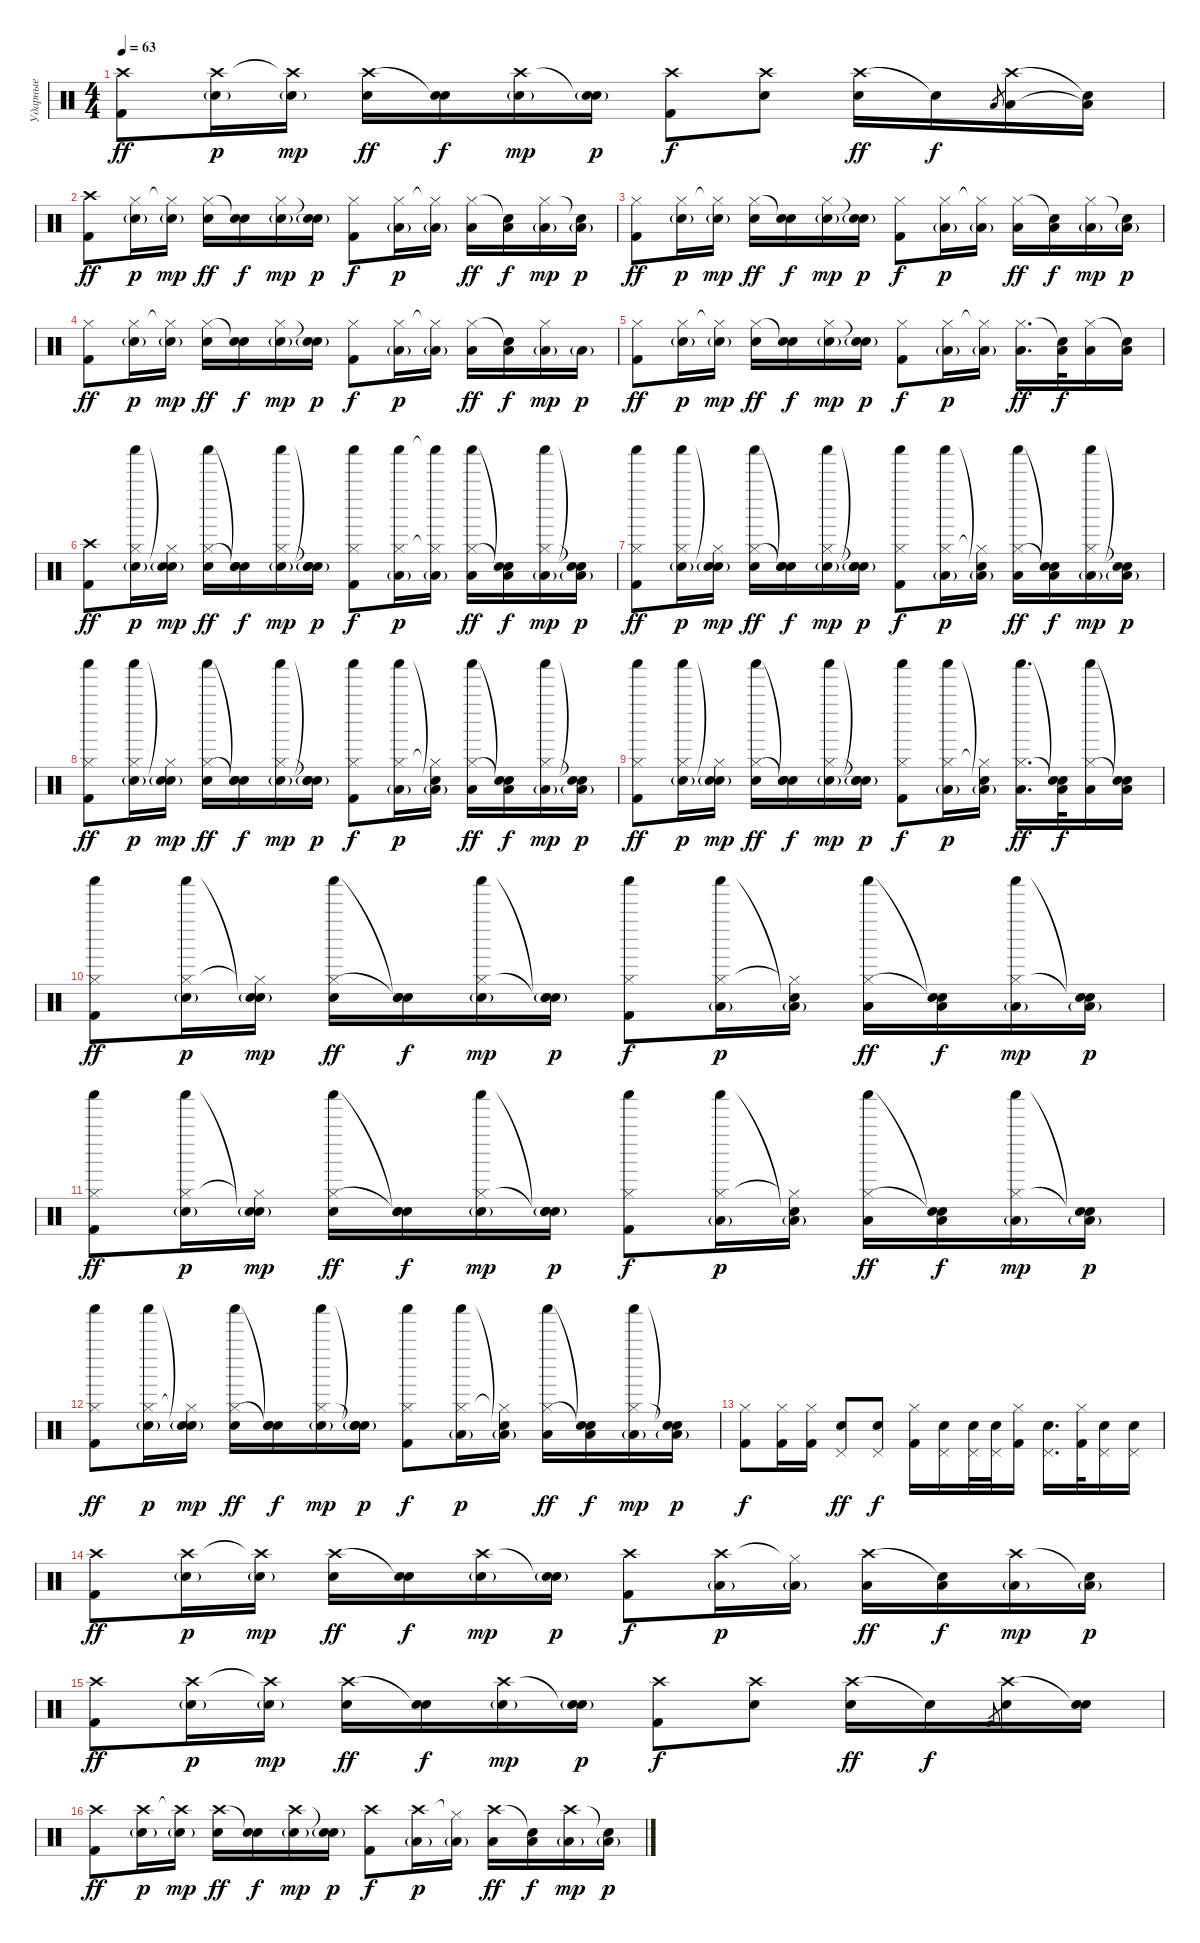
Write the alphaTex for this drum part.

\track ("Ударные" "Ударные") {instrument percussion}
\staff {score}
\articulation defaults
\ts (4 4)
\tempo 63
\clef neutral
\ks c
("Crash high (hit)" "Kick (hit) 2").8{dy ff} ("Crash high (hit)" "Snare (hit) 2"{g}).16{dy p} ("Crash high (hit)"{t} "Snare (hit) 2"{g}).16{dy mp} ("Crash high (hit)" "Snare (hit) 2").16{dy ff} ("Snare (hit)"{t} "Snare (hit) 2").16{dy f} ("Crash high (hit)" "Snare (hit) 2"{g}).16{dy mp} ("Snare (hit)"{t} "Snare (hit) 2"{g}).16{dy p} ("Crash high (hit)" "Kick (hit) 2").8{dy f} ("Crash high (hit)" "Snare (hit) 2").8 ("Crash high (hit)" "Snare (hit) 2").16{dy ff} "Snare (hit)"{t}.16{dy f} "Low Floor Tom (hit)".8{gr} ("Crash high (hit)" "Low Floor Tom (hit)").16 ("Snare (hit)"{t} "Low Floor Tom (hit)"{t}).16 |
("Crash high (hit)" "Kick (hit) 2").8{dy ff volume 12} ("Hi-Hat (closed)" "Snare (hit) 2"{g}).16{dy p} ("Hi-Hat (closed)"{t} "Snare (hit) 2"{g}).16{dy mp} ("Hi-Hat (closed)" "Snare (hit) 2").16{dy ff} ("Snare (hit)"{t} "Snare (hit) 2").16{dy f} ("Hi-Hat (closed)" "Snare (hit) 2"{g}).16{dy mp} ("Snare (hit)"{t} "Snare (hit) 2"{g}).16{dy p} ("Hi-Hat (closed)" "Kick (hit) 2").8{dy f} ("Hi-Hat (closed)" "Low Floor Tom (hit)"{g}).16{dy p} ("Hi-Hat (closed)"{t} "Low Floor Tom (hit)"{g}).16 ("Hi-Hat (closed)" "Low Floor Tom (hit)").16{dy ff} ("Snare (hit)"{t} "Low Floor Tom (hit)").16{dy f} ("Hi-Hat (closed)" "Low Floor Tom (hit)"{g}).16{dy mp} ("Snare (hit)"{t} "Low Floor Tom (hit)"{g}).16{dy p} |
("Hi-Hat (closed)" "Kick (hit) 2").8{dy ff} ("Hi-Hat (closed)" "Snare (hit) 2"{g}).16{dy p} ("Hi-Hat (closed)"{t} "Snare (hit) 2"{g}).16{dy mp} ("Hi-Hat (closed)" "Snare (hit) 2").16{dy ff} ("Snare (hit)"{t} "Snare (hit) 2").16{dy f} ("Hi-Hat (closed)" "Snare (hit) 2"{g}).16{dy mp} ("Snare (hit)"{t} "Snare (hit) 2"{g}).16{dy p} ("Hi-Hat (closed)" "Kick (hit) 2").8{dy f} ("Hi-Hat (closed)" "Low Floor Tom (hit)"{g}).16{dy p} ("Hi-Hat (closed)"{t} "Low Floor Tom (hit)"{g}).16 ("Hi-Hat (closed)" "Low Floor Tom (hit)").16{dy ff} ("Snare (hit)"{t} "Low Floor Tom (hit)").16{dy f} ("Hi-Hat (closed)" "Low Floor Tom (hit)"{g}).16{dy mp} ("Snare (hit)"{t} "Low Floor Tom (hit)"{g}).16{dy p} |
("Hi-Hat (closed)" "Kick (hit) 2").8{dy ff} ("Hi-Hat (closed)" "Snare (hit) 2"{g}).16{dy p} ("Hi-Hat (closed)"{t} "Snare (hit) 2"{g}).16{dy mp} ("Hi-Hat (closed)" "Snare (hit) 2").16{dy ff} ("Snare (hit)"{t} "Snare (hit) 2").16{dy f} ("Hi-Hat (closed)" "Snare (hit) 2"{g}).16{dy mp} ("Snare (hit)"{t} "Snare (hit) 2"{g}).16{dy p} ("Hi-Hat (closed)" "Kick (hit) 2").8{dy f} ("Hi-Hat (closed)" "Low Floor Tom (hit)"{g}).16{dy p} ("Hi-Hat (closed)"{t} "Low Floor Tom (hit)"{g}).16 ("Hi-Hat (closed)" "Low Floor Tom (hit)").16{dy ff} ("Snare (hit)"{t} "Low Floor Tom (hit)").16{dy f} ("Hi-Hat (closed)" "Low Floor Tom (hit)"{g}).16{dy mp} "Low Floor Tom (hit)"{g}.16{dy p} |
("Hi-Hat (closed)" "Kick (hit) 2").8{dy ff} ("Hi-Hat (closed)" "Snare (hit) 2"{g}).16{dy p} ("Hi-Hat (closed)"{t} "Snare (hit) 2"{g}).16{dy mp} ("Hi-Hat (closed)" "Snare (hit) 2").16{dy ff} ("Snare (hit)"{t} "Snare (hit) 2").16{dy f} ("Hi-Hat (closed)" "Snare (hit) 2"{g}).16{dy mp} ("Snare (hit)"{t} "Snare (hit) 2"{g}).16{dy p} ("Hi-Hat (closed)" "Kick (hit) 2").8{dy f} ("Hi-Hat (closed)" "Low Floor Tom (hit)"{g}).16{dy p} ("Hi-Hat (closed)"{t} "Low Floor Tom (hit)"{g}).16 ("Hi-Hat (closed)" "Low Floor Tom (hit)").16{d dy ff} ("Snare (hit)"{t} "Low Floor Tom (hit)").32{dy f} ("Hi-Hat (closed)" "Low Floor Tom (hit)").16 ("Snare (hit)"{t} "Low Floor Tom (hit)").16 |
("Crash high (hit)" "Kick (hit) 2").8{dy ff} ("Hi-Hat (closed)" "Shaker (hit)" "Snare (hit) 2"{g}).16{dy p} ("Hi-Hat (closed)"{t} "Snare (hit)"{t} "Snare (hit) 2"{g}).16{dy mp} ("Hi-Hat (closed)" "Shaker (hit)" "Snare (hit) 2").16{dy ff} ("Snare (hit)"{t} "Snare (hit)"{t} "Snare (hit) 2").16{dy f} ("Hi-Hat (closed)" "Shaker (hit)" "Snare (hit) 2"{g}).16{dy mp} ("Snare (hit)"{t} "Snare (hit)"{t} "Snare (hit) 2"{g}).16{dy p} ("Hi-Hat (closed)" "Shaker (hit)" "Kick (hit) 2").8{dy f} ("Hi-Hat (closed)" "Shaker (hit)" "Low Floor Tom (hit)"{g}).16{dy p} ("Hi-Hat (closed)"{t} "Shaker (hit)"{t} "Low Floor Tom (hit)"{g}).16 ("Hi-Hat (closed)" "Shaker (hit)" "Low Floor Tom (hit)").16{dy ff} ("Snare (hit)"{t} "Snare (hit)"{t} "Low Floor Tom (hit)").16{dy f} ("Hi-Hat (closed)" "Shaker (hit)" "Low Floor Tom (hit)"{g}).16{dy mp} ("Snare (hit)"{t} "Snare (hit)"{t} "Low Floor Tom (hit)"{g}).16{dy p} |
("Hi-Hat (closed)" "Shaker (hit)" "Kick (hit) 2").8{dy ff} ("Hi-Hat (closed)" "Shaker (hit)" "Snare (hit) 2"{g}).16{dy p} ("Hi-Hat (closed)"{t} "Snare (hit)"{t} "Snare (hit) 2"{g}).16{dy mp} ("Hi-Hat (closed)" "Shaker (hit)" "Snare (hit) 2").16{dy ff} ("Snare (hit)"{t} "Snare (hit)"{t} "Snare (hit) 2").16{dy f} ("Hi-Hat (closed)" "Shaker (hit)" "Snare (hit) 2"{g}).16{dy mp} ("Snare (hit)"{t} "Snare (hit)"{t} "Snare (hit) 2"{g}).16{dy p} ("Hi-Hat (closed)" "Shaker (hit)" "Kick (hit) 2").8{dy f} ("Hi-Hat (closed)" "Shaker (hit)" "Low Floor Tom (hit)"{g}).16{dy p} ("Hi-Hat (closed)"{t} "Snare (hit)"{t} "Low Floor Tom (hit)"{g}).16 ("Hi-Hat (closed)" "Shaker (hit)" "Low Floor Tom (hit)").16{dy ff} ("Snare (hit)"{t} "Snare (hit)"{t} "Low Floor Tom (hit)").16{dy f} ("Hi-Hat (closed)" "Shaker (hit)" "Low Floor Tom (hit)"{g}).16{dy mp} ("Snare (hit)"{t} "Snare (hit)"{t} "Low Floor Tom (hit)"{g}).16{dy p} |
("Hi-Hat (closed)" "Shaker (hit)" "Kick (hit) 2").8{dy ff} ("Hi-Hat (closed)" "Shaker (hit)" "Snare (hit) 2"{g}).16{dy p} ("Hi-Hat (closed)"{t} "Snare (hit)"{t} "Snare (hit) 2"{g}).16{dy mp} ("Hi-Hat (closed)" "Shaker (hit)" "Snare (hit) 2").16{dy ff} ("Snare (hit)"{t} "Snare (hit)"{t} "Snare (hit) 2").16{dy f} ("Hi-Hat (closed)" "Shaker (hit)" "Snare (hit) 2"{g}).16{dy mp} ("Snare (hit)"{t} "Snare (hit)"{t} "Snare (hit) 2"{g}).16{dy p} ("Hi-Hat (closed)" "Shaker (hit)" "Kick (hit) 2").8{dy f} ("Hi-Hat (closed)" "Shaker (hit)" "Low Floor Tom (hit)"{g}).16{dy p} ("Hi-Hat (closed)"{t} "Snare (hit)"{t} "Low Floor Tom (hit)"{g}).16 ("Hi-Hat (closed)" "Shaker (hit)" "Low Floor Tom (hit)").16{dy ff} ("Snare (hit)"{t} "Snare (hit)"{t} "Low Floor Tom (hit)").16{dy f} ("Hi-Hat (closed)" "Shaker (hit)" "Low Floor Tom (hit)"{g}).16{dy mp} ("Snare (hit)"{t} "Snare (hit)"{t} "Low Floor Tom (hit)"{g}).16{dy p} |
("Hi-Hat (closed)" "Shaker (hit)" "Kick (hit) 2").8{dy ff} ("Hi-Hat (closed)" "Shaker (hit)" "Snare (hit) 2"{g}).16{dy p} ("Hi-Hat (closed)"{t} "Snare (hit)"{t} "Snare (hit) 2"{g}).16{dy mp} ("Hi-Hat (closed)" "Shaker (hit)" "Snare (hit) 2").16{dy ff} ("Snare (hit)"{t} "Snare (hit)"{t} "Snare (hit) 2").16{dy f} ("Hi-Hat (closed)" "Shaker (hit)" "Snare (hit) 2"{g}).16{dy mp} ("Snare (hit)"{t} "Snare (hit)"{t} "Snare (hit) 2"{g}).16{dy p} ("Hi-Hat (closed)" "Shaker (hit)" "Kick (hit) 2").8{dy f} ("Hi-Hat (closed)" "Shaker (hit)" "Low Floor Tom (hit)"{g}).16{dy p} ("Hi-Hat (closed)"{t} "Snare (hit)"{t} "Low Floor Tom (hit)"{g}).16 ("Hi-Hat (closed)" "Shaker (hit)" "Low Floor Tom (hit)").16{d dy ff} ("Snare (hit)"{t} "Snare (hit)"{t} "Low Floor Tom (hit)").32{dy f} ("Hi-Hat (closed)" "Shaker (hit)" "Low Floor Tom (hit)").16 ("Snare (hit)"{t} "Snare (hit)"{t} "Low Floor Tom (hit)").16 |
("Hi-Hat (closed)" "Shaker (hit)" "Kick (hit) 2").8{dy ff} ("Hi-Hat (closed)" "Shaker (hit)" "Snare (hit) 2"{g}).16{dy p} ("Hi-Hat (closed)"{t} "Snare (hit)"{t} "Snare (hit) 2"{g}).16{dy mp} ("Hi-Hat (closed)" "Shaker (hit)" "Snare (hit) 2").16{dy ff} ("Snare (hit)"{t} "Snare (hit)"{t} "Snare (hit) 2").16{dy f} ("Hi-Hat (closed)" "Shaker (hit)" "Snare (hit) 2"{g}).16{dy mp} ("Snare (hit)"{t} "Snare (hit)"{t} "Snare (hit) 2"{g}).16{dy p} ("Hi-Hat (closed)" "Shaker (hit)" "Kick (hit) 2").8{dy f} ("Hi-Hat (closed)" "Shaker (hit)" "Low Floor Tom (hit)"{g}).16{dy p} ("Hi-Hat (closed)"{t} "Snare (hit)"{t} "Low Floor Tom (hit)"{g}).16 ("Hi-Hat (closed)" "Shaker (hit)" "Low Floor Tom (hit)").16{dy ff} ("Snare (hit)"{t} "Snare (hit)"{t} "Low Floor Tom (hit)").16{dy f} ("Hi-Hat (closed)" "Shaker (hit)" "Low Floor Tom (hit)"{g}).16{dy mp} ("Snare (hit)"{t} "Snare (hit)"{t} "Low Floor Tom (hit)"{g}).16{dy p} |
("Hi-Hat (closed)" "Shaker (hit)" "Kick (hit) 2").8{dy ff} ("Hi-Hat (closed)" "Shaker (hit)" "Snare (hit) 2"{g}).16{dy p} ("Hi-Hat (closed)"{t} "Snare (hit)"{t} "Snare (hit) 2"{g}).16{dy mp} ("Hi-Hat (closed)" "Shaker (hit)" "Snare (hit) 2").16{dy ff} ("Snare (hit)"{t} "Snare (hit)"{t} "Snare (hit) 2").16{dy f} ("Hi-Hat (closed)" "Shaker (hit)" "Snare (hit) 2"{g}).16{dy mp} ("Snare (hit)"{t} "Snare (hit)"{t} "Snare (hit) 2"{g}).16{dy p} ("Hi-Hat (closed)" "Shaker (hit)" "Kick (hit) 2").8{dy f} ("Hi-Hat (closed)" "Shaker (hit)" "Low Floor Tom (hit)"{g}).16{dy p} ("Hi-Hat (closed)"{t} "Snare (hit)"{t} "Low Floor Tom (hit)"{g}).16 ("Hi-Hat (closed)" "Shaker (hit)" "Low Floor Tom (hit)").16{dy ff} ("Snare (hit)"{t} "Snare (hit)"{t} "Low Floor Tom (hit)").16{dy f} ("Hi-Hat (closed)" "Shaker (hit)" "Low Floor Tom (hit)"{g}).16{dy mp} ("Snare (hit)"{t} "Snare (hit)"{t} "Low Floor Tom (hit)"{g}).16{dy p} |
("Hi-Hat (closed)" "Shaker (hit)" "Kick (hit) 2").8{dy ff} ("Hi-Hat (closed)" "Shaker (hit)" "Snare (hit) 2"{g}).16{dy p} ("Hi-Hat (closed)"{t} "Snare (hit)"{t} "Snare (hit) 2"{g}).16{dy mp} ("Hi-Hat (closed)" "Shaker (hit)" "Snare (hit) 2").16{dy ff} ("Snare (hit)"{t} "Snare (hit)"{t} "Snare (hit) 2").16{dy f} ("Hi-Hat (closed)" "Shaker (hit)" "Snare (hit) 2"{g}).16{dy mp} ("Snare (hit)"{t} "Snare (hit)"{t} "Snare (hit) 2"{g}).16{dy p} ("Hi-Hat (closed)" "Shaker (hit)" "Kick (hit) 2").8{dy f} ("Hi-Hat (closed)" "Shaker (hit)" "Low Floor Tom (hit)"{g}).16{dy p} ("Hi-Hat (closed)"{t} "Snare (hit)"{t} "Low Floor Tom (hit)"{g}).16 ("Hi-Hat (closed)" "Shaker (hit)" "Low Floor Tom (hit)").16{dy ff} ("Snare (hit)"{t} "Snare (hit)"{t} "Low Floor Tom (hit)").16{dy f} ("Hi-Hat (closed)" "Shaker (hit)" "Low Floor Tom (hit)"{g}).16{dy mp} ("Snare (hit)"{t} "Snare (hit)"{t} "Low Floor Tom (hit)"{g}).16{dy p} |
("Hi-Hat (closed)" "Kick (hit) 2").8{dy f} ("Hi-Hat (closed)" "Kick (hit) 2").16 ("Hi-Hat (closed)" "Kick (hit) 2").16 ("Pedal Hi-Hat (hit)" "Snare (hit) 2").8{dy ff} ("Pedal Hi-Hat (hit)" "Snare (hit) 2").8{dy f} ("Hi-Hat (closed)" "Kick (hit) 2").16 ("Pedal Hi-Hat (hit)" "Snare (hit) 2").16 ("Pedal Hi-Hat (hit)" "Snare (hit) 2").32 ("Pedal Hi-Hat (hit)" "Snare (hit) 2").32 ("Hi-Hat (closed)" "Kick (hit) 2").16 ("Pedal Hi-Hat (hit)" "Snare (hit) 2").16{d} ("Hi-Hat (closed)" "Kick (hit) 2").32 ("Pedal Hi-Hat (hit)" "Snare (hit) 2").16 ("Pedal Hi-Hat (hit)" "Snare (hit) 2").16 |
("Crash high (hit)" "Kick (hit) 2").8{dy ff volume 16} ("Crash high (hit)" "Snare (hit) 2"{g}).16{dy p} ("Crash high (hit)"{t} "Snare (hit) 2"{g}).16{dy mp} ("Crash high (hit)" "Snare (hit) 2").16{dy ff} ("Snare (hit)"{t} "Snare (hit) 2").16{dy f} ("Crash high (hit)" "Snare (hit) 2"{g}).16{dy mp} ("Snare (hit)"{t} "Snare (hit) 2"{g}).16{dy p} ("Crash high (hit)" "Kick (hit) 2").8{dy f} ("Crash high (hit)" "Low Floor Tom (hit)"{g}).16{dy p} ("Hi-Hat (closed)"{t} "Low Floor Tom (hit)"{g}).16 ("Crash high (hit)" "Low Floor Tom (hit)").16{dy ff} ("Snare (hit)"{t} "Low Floor Tom (hit)").16{dy f} ("Crash high (hit)" "Low Floor Tom (hit)"{g}).16{dy mp} ("Snare (hit)"{t} "Low Floor Tom (hit)"{g}).16{dy p} |
("Crash high (hit)" "Kick (hit) 2").8{dy ff} ("Crash high (hit)" "Snare (hit) 2"{g}).16{dy p} ("Crash high (hit)"{t} "Snare (hit) 2"{g}).16{dy mp} ("Crash high (hit)" "Snare (hit) 2").16{dy ff} ("Snare (hit)"{t} "Snare (hit) 2").16{dy f} ("Crash high (hit)" "Snare (hit) 2"{g}).16{dy mp} ("Snare (hit)"{t} "Snare (hit) 2"{g}).16{dy p} ("Crash high (hit)" "Kick (hit) 2").8{dy f} ("Crash high (hit)" "Snare (hit) 2").8 ("Crash high (hit)" "Snare (hit) 2").16{dy ff} "Snare (hit)"{t}.16{dy f} "Kick (hit) 2".8{gr} ("Crash high (hit)" "Snare (hit) 2").16 ("Snare (hit)"{t} "Snare (hit) 2").16 |
("Crash high (hit)" "Kick (hit) 2").8{dy ff} ("Crash high (hit)" "Snare (hit) 2"{g}).16{dy p} ("Crash high (hit)"{t} "Snare (hit) 2"{g}).16{dy mp} ("Crash high (hit)" "Snare (hit) 2").16{dy ff} ("Snare (hit)"{t} "Snare (hit) 2").16{dy f} ("Crash high (hit)" "Snare (hit) 2"{g}).16{dy mp} ("Snare (hit)"{t} "Snare (hit) 2"{g}).16{dy p} ("Crash high (hit)" "Kick (hit) 2").8{dy f} ("Crash high (hit)" "Low Floor Tom (hit)"{g}).16{dy p} ("Hi-Hat (closed)"{t} "Low Floor Tom (hit)"{g}).16 ("Crash high (hit)" "Low Floor Tom (hit)").16{dy ff} ("Snare (hit)"{t} "Low Floor Tom (hit)").16{dy f} ("Crash high (hit)" "Low Floor Tom (hit)"{g}).16{dy mp} ("Snare (hit)"{t} "Low Floor Tom (hit)"{g}).16{dy p}
